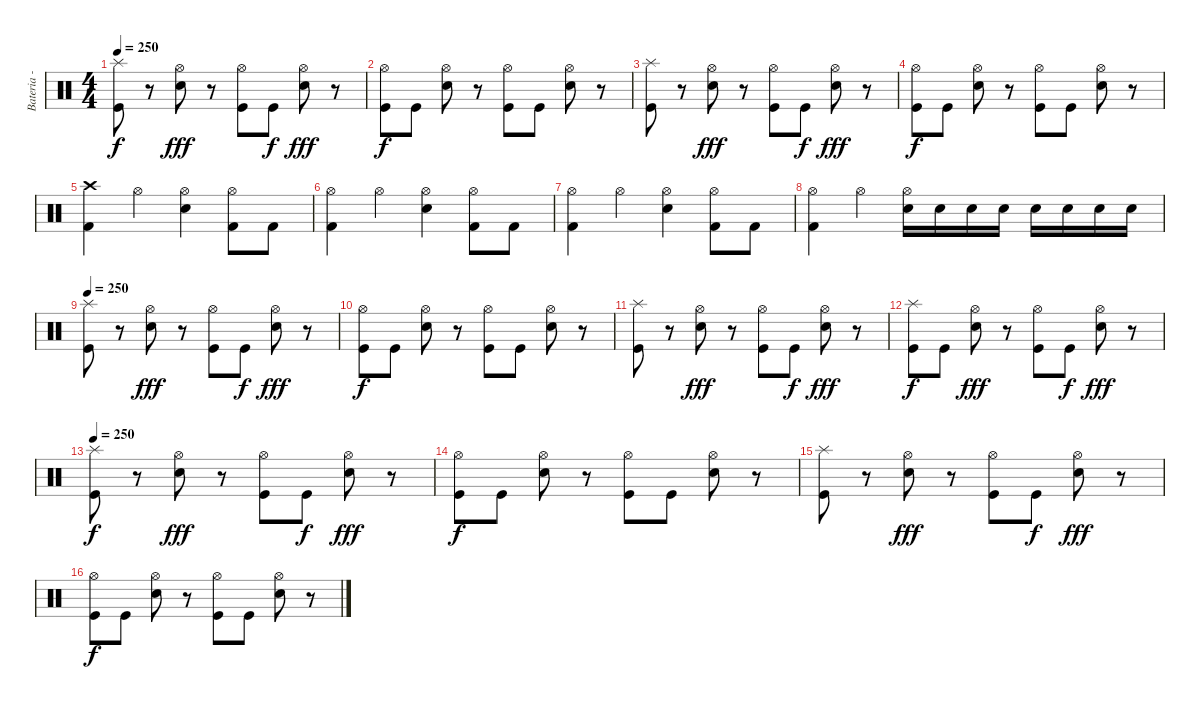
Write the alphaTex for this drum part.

\track ("Bateria - Japinha" "Bateria - ") {instrument percussion}
\staff {score}
\articulation defaults
\ts (4 4)
\tempo 250
\clef neutral
\ks c
("Kick (hit)" "Splash (hit)").8{dy f} r.8 ("Snare (hit) 2" "Hi-Hat (open)").8{dy fff} r.8 ("Kick (hit)" "Hi-Hat (open)").8 "Kick (hit)".8{dy f} ("Snare (hit) 2" "Hi-Hat (open)").8{dy fff} r.8 |
("Kick (hit)" "Hi-Hat (open)").8{dy f} "Kick (hit)".8 ("Snare (hit) 2" "Hi-Hat (open)").8 r.8 ("Kick (hit)" "Hi-Hat (open)").8 "Kick (hit)".8 ("Snare (hit) 2" "Hi-Hat (open)").8 r.8 |
("Kick (hit)" "Splash (hit)").8 r.8 ("Snare (hit) 2" "Hi-Hat (open)").8{dy fff} r.8 ("Kick (hit)" "Hi-Hat (open)").8 "Kick (hit)".8{dy f} ("Snare (hit) 2" "Hi-Hat (open)").8{dy fff} r.8 |
("Kick (hit)" "Hi-Hat (open)").8{dy f} "Kick (hit)".8 ("Snare (hit) 2" "Hi-Hat (open)").8 r.8 ("Kick (hit)" "Hi-Hat (open)").8 "Kick (hit)".8 ("Snare (hit) 2" "Hi-Hat (open)").8 r.8 |
("Kick (hit) 2" "Crash high (hit)").4 "Hi-Hat (open)".4 ("Snare (hit) 2" "Hi-Hat (open)").4 ("Kick (hit) 2" "Hi-Hat (open)").8 "Kick (hit) 2".8 |
("Kick (hit) 2" "Hi-Hat (open)").4 "Hi-Hat (open)".4 ("Snare (hit) 2" "Hi-Hat (open)").4 ("Kick (hit) 2" "Hi-Hat (open)").8 "Kick (hit) 2".8 |
("Kick (hit) 2" "Hi-Hat (open)").4 "Hi-Hat (open)".4 ("Snare (hit) 2" "Hi-Hat (open)").4 ("Kick (hit) 2" "Hi-Hat (open)").8 "Kick (hit) 2".8 |
("Kick (hit) 2" "Hi-Hat (open)").4 "Hi-Hat (open)".4 ("Snare (hit) 2" "Hi-Hat (open)").16 "Snare (hit) 2".16 "Snare (hit) 2".16 "Snare (hit) 2".16 "Snare (hit) 2".16 "Snare (hit) 2".16 "Snare (hit) 2".16 "Snare (hit) 2".16 |
\tempo 250
("Kick (hit)" "Splash (hit)").8 r.8 ("Snare (hit) 2" "Hi-Hat (open)").8{dy fff} r.8 ("Kick (hit)" "Hi-Hat (open)").8 "Kick (hit)".8{dy f} ("Snare (hit) 2" "Hi-Hat (open)").8{dy fff} r.8 |
("Kick (hit)" "Hi-Hat (open)").8{dy f} "Kick (hit)".8 ("Snare (hit) 2" "Hi-Hat (open)").8 r.8 ("Kick (hit)" "Hi-Hat (open)").8 "Kick (hit)".8 ("Snare (hit) 2" "Hi-Hat (open)").8 r.8 |
("Kick (hit)" "Splash (hit)").8 r.8 ("Snare (hit) 2" "Hi-Hat (open)").8{dy fff} r.8 ("Kick (hit)" "Hi-Hat (open)").8 "Kick (hit)".8{dy f} ("Snare (hit) 2" "Hi-Hat (open)").8{dy fff} r.8 |
("Kick (hit)" "Splash (hit)").8{dy f} "Kick (hit)".8 ("Snare (hit) 2" "Hi-Hat (open)").8{dy fff} r.8 ("Kick (hit)" "Hi-Hat (open)").8 "Kick (hit)".8{dy f} ("Snare (hit) 2" "Hi-Hat (open)").8{dy fff} r.8 |
\tempo 250
("Kick (hit)" "Splash (hit)").8{dy f} r.8 ("Snare (hit) 2" "Hi-Hat (open)").8{dy fff} r.8 ("Kick (hit)" "Hi-Hat (open)").8 "Kick (hit)".8{dy f} ("Snare (hit) 2" "Hi-Hat (open)").8{dy fff} r.8 |
("Kick (hit)" "Hi-Hat (open)").8{dy f} "Kick (hit)".8 ("Snare (hit) 2" "Hi-Hat (open)").8 r.8 ("Kick (hit)" "Hi-Hat (open)").8 "Kick (hit)".8 ("Snare (hit) 2" "Hi-Hat (open)").8 r.8 |
("Kick (hit)" "Splash (hit)").8 r.8 ("Snare (hit) 2" "Hi-Hat (open)").8{dy fff} r.8 ("Kick (hit)" "Hi-Hat (open)").8 "Kick (hit)".8{dy f} ("Snare (hit) 2" "Hi-Hat (open)").8{dy fff} r.8 |
("Kick (hit)" "Hi-Hat (open)").8{dy f} "Kick (hit)".8 ("Snare (hit) 2" "Hi-Hat (open)").8 r.8 ("Kick (hit)" "Hi-Hat (open)").8 "Kick (hit)".8 ("Snare (hit) 2" "Hi-Hat (open)").8 r.8
